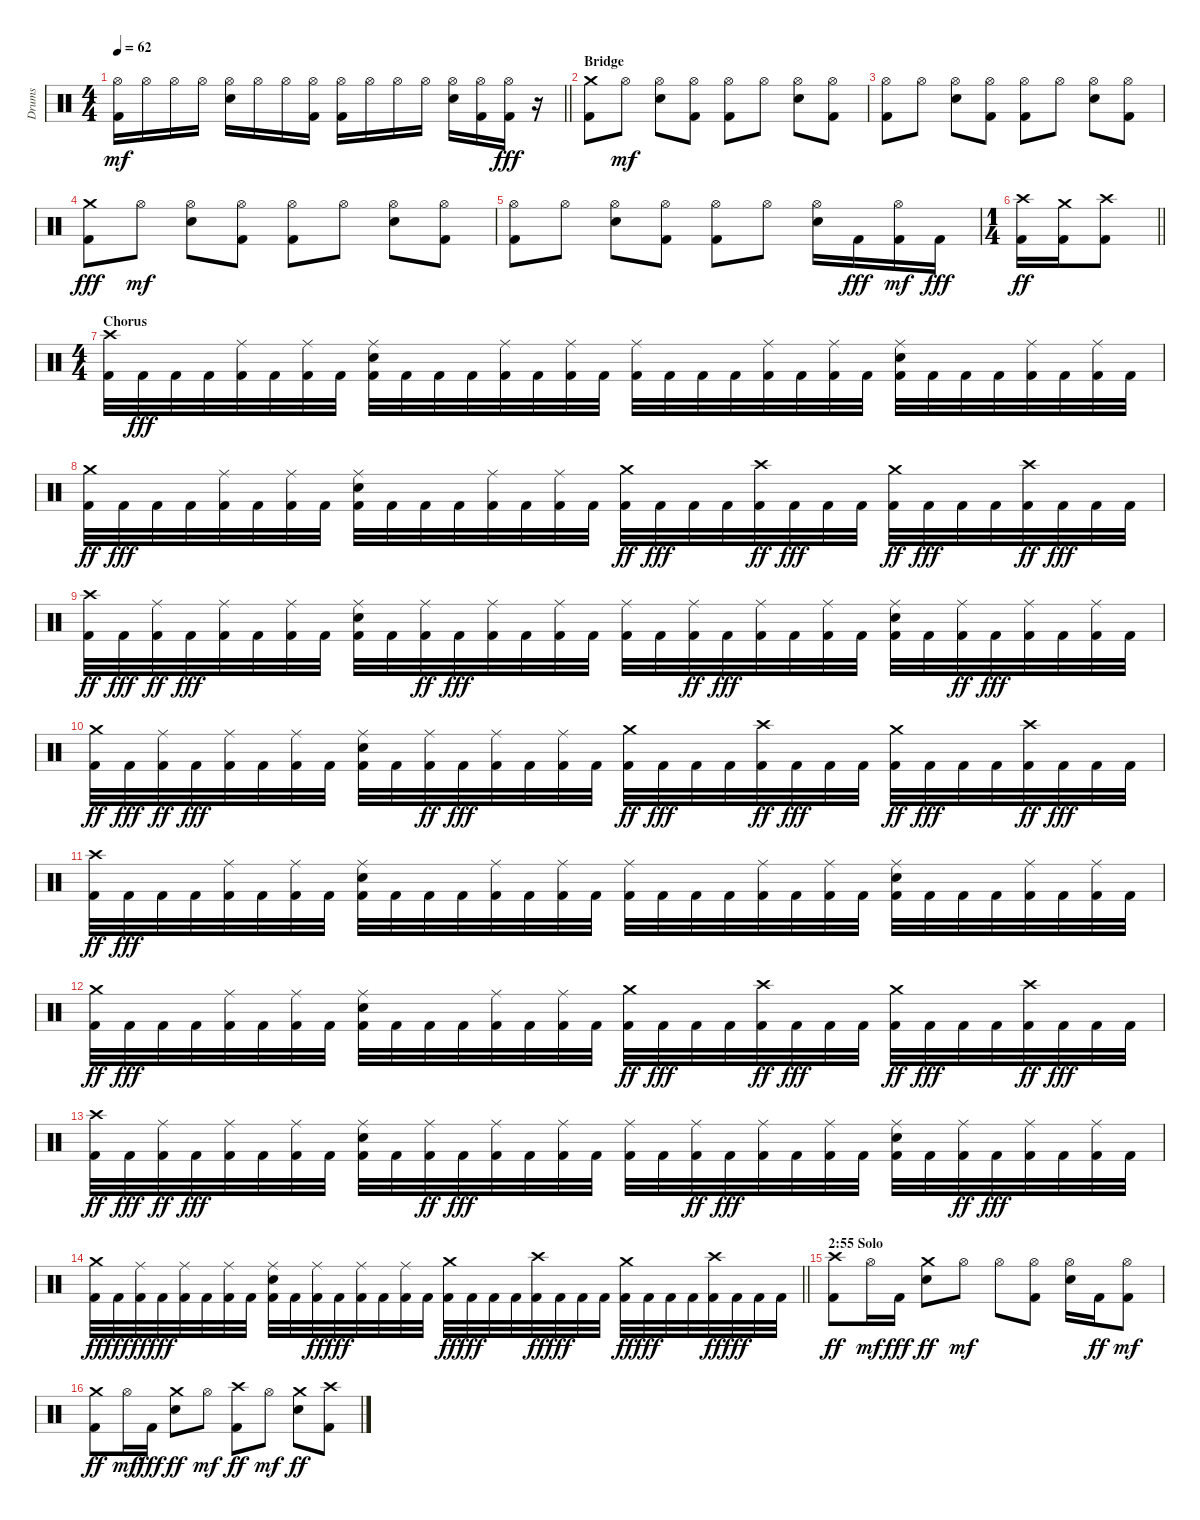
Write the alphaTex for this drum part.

\track ("Drums" "Drums") {instrument percussion}
\staff {score}
\articulation defaults
\ts (4 4)
\tempo 62
\clef neutral
\barLineRight lightlight
\ks c
("Kick (hit) 2" "Hi-Hat (open)").16{dy mf} "Hi-Hat (open)".16 "Hi-Hat (open)".16 "Hi-Hat (open)".16 ("Electric Snare (hit)" "Hi-Hat (open)").16 "Hi-Hat (open)".16 "Hi-Hat (open)".16 ("Kick (hit) 2" "Hi-Hat (open)").16 ("Kick (hit) 2" "Hi-Hat (open)").16 "Hi-Hat (open)".16 "Hi-Hat (open)".16 "Hi-Hat (open)".16 ("Electric Snare (hit)" "Hi-Hat (open)").16 ("Kick (hit) 2" "Hi-Hat (open)").16 ("Kick (hit) 2" "Hi-Hat (open)").16{dy fff} r.16 |
\section ("" "Bridge")
("Kick (hit) 2" "Crash medium (hit)").8 "Hi-Hat (open)".8{dy mf} ("Electric Snare (hit)" "Hi-Hat (open)").8 ("Kick (hit) 2" "Hi-Hat (open)").8 ("Kick (hit) 2" "Hi-Hat (open)").8 "Hi-Hat (open)".8 ("Electric Snare (hit)" "Hi-Hat (open)").8 ("Kick (hit) 2" "Hi-Hat (open)").8 |
("Kick (hit) 2" "Hi-Hat (open)").8 "Hi-Hat (open)".8 ("Electric Snare (hit)" "Hi-Hat (open)").8 ("Kick (hit) 2" "Hi-Hat (open)").8 ("Kick (hit) 2" "Hi-Hat (open)").8 "Hi-Hat (open)".8 ("Electric Snare (hit)" "Hi-Hat (open)").8 ("Kick (hit) 2" "Hi-Hat (open)").8 |
("Kick (hit) 2" "Crash medium (hit)").8{dy fff} "Hi-Hat (open)".8{dy mf} ("Electric Snare (hit)" "Hi-Hat (open)").8 ("Kick (hit) 2" "Hi-Hat (open)").8 ("Kick (hit) 2" "Hi-Hat (open)").8 "Hi-Hat (open)".8 ("Electric Snare (hit)" "Hi-Hat (open)").8 ("Kick (hit) 2" "Hi-Hat (open)").8 |
("Kick (hit) 2" "Hi-Hat (open)").8 "Hi-Hat (open)".8 ("Electric Snare (hit)" "Hi-Hat (open)").8 ("Kick (hit) 2" "Hi-Hat (open)").8 ("Kick (hit) 2" "Hi-Hat (open)").8 "Hi-Hat (open)".8 ("Electric Snare (hit)" "Hi-Hat (open)").16 "Kick (hit) 2".16{dy fff} ("Kick (hit) 2" "Hi-Hat (open)").16{dy mf} "Kick (hit) 2".16{dy fff} |
\ts (1 4)
\barLineRight lightlight
("Kick (hit) 2" "Crash high (hit)").16{dy ff} ("Kick (hit) 2" "Crash medium (hit)").16 ("Kick (hit) 2" "Crash high (hit)").8 |
\ts (4 4)
\section ("" "Chorus")
("Kick (hit) 2" "Crash high (hit)").32 "Kick (hit) 2".32{dy fff} "Kick (hit) 2".32 "Kick (hit) 2".32 ("Kick (hit) 2" "Ride (middle)").32 "Kick (hit) 2".32 ("Kick (hit) 2" "Ride (middle)").32 "Kick (hit) 2".32 ("Kick (hit) 2" "Electric Snare (hit)" "Ride (middle)").32 "Kick (hit) 2".32 "Kick (hit) 2".32 "Kick (hit) 2".32 ("Kick (hit) 2" "Ride (middle)").32 "Kick (hit) 2".32 ("Kick (hit) 2" "Ride (middle)").32 "Kick (hit) 2".32 ("Kick (hit) 2" "Ride (middle)").32 "Kick (hit) 2".32 "Kick (hit) 2".32 "Kick (hit) 2".32 ("Kick (hit) 2" "Ride (middle)").32 "Kick (hit) 2".32 ("Kick (hit) 2" "Ride (middle)").32 "Kick (hit) 2".32 ("Kick (hit) 2" "Electric Snare (hit)" "Ride (middle)").32 "Kick (hit) 2".32 "Kick (hit) 2".32 "Kick (hit) 2".32 ("Kick (hit) 2" "Ride (middle)").32 "Kick (hit) 2".32 ("Kick (hit) 2" "Ride (middle)").32 "Kick (hit) 2".32 |
("Kick (hit) 2" "Crash medium (hit)").32{dy ff} "Kick (hit) 2".32{dy fff} "Kick (hit) 2".32 "Kick (hit) 2".32 ("Kick (hit) 2" "Ride (middle)").32 "Kick (hit) 2".32 ("Kick (hit) 2" "Ride (middle)").32 "Kick (hit) 2".32 ("Kick (hit) 2" "Electric Snare (hit)" "Ride (middle)").32 "Kick (hit) 2".32 "Kick (hit) 2".32 "Kick (hit) 2".32 ("Kick (hit) 2" "Ride (middle)").32 "Kick (hit) 2".32 ("Kick (hit) 2" "Ride (middle)").32 "Kick (hit) 2".32 ("Kick (hit) 2" "Crash medium (hit)").32{dy ff} "Kick (hit) 2".32{dy fff} "Kick (hit) 2".32 "Kick (hit) 2".32 ("Kick (hit) 2" "Crash high (hit)").32{dy ff} "Kick (hit) 2".32{dy fff} "Kick (hit) 2".32 "Kick (hit) 2".32 ("Kick (hit) 2" "Crash medium (hit)").32{dy ff} "Kick (hit) 2".32{dy fff} "Kick (hit) 2".32 "Kick (hit) 2".32 ("Kick (hit) 2" "Crash high (hit)").32{dy ff} "Kick (hit) 2".32{dy fff} "Kick (hit) 2".32 "Kick (hit) 2".32 |
("Kick (hit) 2" "Crash high (hit)").32{dy ff} "Kick (hit) 2".32{dy fff} ("Kick (hit) 2" "Ride (middle)").32{dy ff} "Kick (hit) 2".32{dy fff} ("Kick (hit) 2" "Ride (middle)").32 "Kick (hit) 2".32 ("Kick (hit) 2" "Ride (middle)").32 "Kick (hit) 2".32 ("Kick (hit) 2" "Electric Snare (hit)" "Ride (middle)").32 "Kick (hit) 2".32 ("Kick (hit) 2" "Ride (middle)").32{dy ff} "Kick (hit) 2".32{dy fff} ("Kick (hit) 2" "Ride (middle)").32 "Kick (hit) 2".32 ("Kick (hit) 2" "Ride (middle)").32 "Kick (hit) 2".32 ("Kick (hit) 2" "Ride (middle)").32 "Kick (hit) 2".32 ("Kick (hit) 2" "Ride (middle)").32{dy ff} "Kick (hit) 2".32{dy fff} ("Kick (hit) 2" "Ride (middle)").32 "Kick (hit) 2".32 ("Kick (hit) 2" "Ride (middle)").32 "Kick (hit) 2".32 ("Kick (hit) 2" "Electric Snare (hit)" "Ride (middle)").32 "Kick (hit) 2".32 ("Kick (hit) 2" "Ride (middle)").32{dy ff} "Kick (hit) 2".32{dy fff} ("Kick (hit) 2" "Ride (middle)").32 "Kick (hit) 2".32 ("Kick (hit) 2" "Ride (middle)").32 "Kick (hit) 2".32 |
("Kick (hit) 2" "Crash medium (hit)").32{dy ff} "Kick (hit) 2".32{dy fff} ("Kick (hit) 2" "Ride (middle)").32{dy ff} "Kick (hit) 2".32{dy fff} ("Kick (hit) 2" "Ride (middle)").32 "Kick (hit) 2".32 ("Kick (hit) 2" "Ride (middle)").32 "Kick (hit) 2".32 ("Kick (hit) 2" "Electric Snare (hit)" "Ride (middle)").32 "Kick (hit) 2".32 ("Kick (hit) 2" "Ride (middle)").32{dy ff} "Kick (hit) 2".32{dy fff} ("Kick (hit) 2" "Ride (middle)").32 "Kick (hit) 2".32 ("Kick (hit) 2" "Ride (middle)").32 "Kick (hit) 2".32 ("Kick (hit) 2" "Crash medium (hit)").32{dy ff} "Kick (hit) 2".32{dy fff} "Kick (hit) 2".32 "Kick (hit) 2".32 ("Kick (hit) 2" "Crash high (hit)").32{dy ff} "Kick (hit) 2".32{dy fff} "Kick (hit) 2".32 "Kick (hit) 2".32 ("Kick (hit) 2" "Crash medium (hit)").32{dy ff} "Kick (hit) 2".32{dy fff} "Kick (hit) 2".32 "Kick (hit) 2".32 ("Kick (hit) 2" "Crash high (hit)").32{dy ff} "Kick (hit) 2".32{dy fff} "Kick (hit) 2".32 "Kick (hit) 2".32 |
("Kick (hit) 2" "Crash high (hit)").32{dy ff} "Kick (hit) 2".32{dy fff} "Kick (hit) 2".32 "Kick (hit) 2".32 ("Kick (hit) 2" "Ride (middle)").32 "Kick (hit) 2".32 ("Kick (hit) 2" "Ride (middle)").32 "Kick (hit) 2".32 ("Kick (hit) 2" "Electric Snare (hit)" "Ride (middle)").32 "Kick (hit) 2".32 "Kick (hit) 2".32 "Kick (hit) 2".32 ("Kick (hit) 2" "Ride (middle)").32 "Kick (hit) 2".32 ("Kick (hit) 2" "Ride (middle)").32 "Kick (hit) 2".32 ("Kick (hit) 2" "Ride (middle)").32 "Kick (hit) 2".32 "Kick (hit) 2".32 "Kick (hit) 2".32 ("Kick (hit) 2" "Ride (middle)").32 "Kick (hit) 2".32 ("Kick (hit) 2" "Ride (middle)").32 "Kick (hit) 2".32 ("Kick (hit) 2" "Electric Snare (hit)" "Ride (middle)").32 "Kick (hit) 2".32 "Kick (hit) 2".32 "Kick (hit) 2".32 ("Kick (hit) 2" "Ride (middle)").32 "Kick (hit) 2".32 ("Kick (hit) 2" "Ride (middle)").32 "Kick (hit) 2".32 |
("Kick (hit) 2" "Crash medium (hit)").32{dy ff} "Kick (hit) 2".32{dy fff} "Kick (hit) 2".32 "Kick (hit) 2".32 ("Kick (hit) 2" "Ride (middle)").32 "Kick (hit) 2".32 ("Kick (hit) 2" "Ride (middle)").32 "Kick (hit) 2".32 ("Kick (hit) 2" "Electric Snare (hit)" "Ride (middle)").32 "Kick (hit) 2".32 "Kick (hit) 2".32 "Kick (hit) 2".32 ("Kick (hit) 2" "Ride (middle)").32 "Kick (hit) 2".32 ("Kick (hit) 2" "Ride (middle)").32 "Kick (hit) 2".32 ("Kick (hit) 2" "Crash medium (hit)").32{dy ff} "Kick (hit) 2".32{dy fff} "Kick (hit) 2".32 "Kick (hit) 2".32 ("Kick (hit) 2" "Crash high (hit)").32{dy ff} "Kick (hit) 2".32{dy fff} "Kick (hit) 2".32 "Kick (hit) 2".32 ("Kick (hit) 2" "Crash medium (hit)").32{dy ff} "Kick (hit) 2".32{dy fff} "Kick (hit) 2".32 "Kick (hit) 2".32 ("Kick (hit) 2" "Crash high (hit)").32{dy ff} "Kick (hit) 2".32{dy fff} "Kick (hit) 2".32 "Kick (hit) 2".32 |
("Kick (hit) 2" "Crash high (hit)").32{dy ff} "Kick (hit) 2".32{dy fff} ("Kick (hit) 2" "Ride (middle)").32{dy ff} "Kick (hit) 2".32{dy fff} ("Kick (hit) 2" "Ride (middle)").32 "Kick (hit) 2".32 ("Kick (hit) 2" "Ride (middle)").32 "Kick (hit) 2".32 ("Kick (hit) 2" "Electric Snare (hit)" "Ride (middle)").32 "Kick (hit) 2".32 ("Kick (hit) 2" "Ride (middle)").32{dy ff} "Kick (hit) 2".32{dy fff} ("Kick (hit) 2" "Ride (middle)").32 "Kick (hit) 2".32 ("Kick (hit) 2" "Ride (middle)").32 "Kick (hit) 2".32 ("Kick (hit) 2" "Ride (middle)").32 "Kick (hit) 2".32 ("Kick (hit) 2" "Ride (middle)").32{dy ff} "Kick (hit) 2".32{dy fff} ("Kick (hit) 2" "Ride (middle)").32 "Kick (hit) 2".32 ("Kick (hit) 2" "Ride (middle)").32 "Kick (hit) 2".32 ("Kick (hit) 2" "Electric Snare (hit)" "Ride (middle)").32 "Kick (hit) 2".32 ("Kick (hit) 2" "Ride (middle)").32{dy ff} "Kick (hit) 2".32{dy fff} ("Kick (hit) 2" "Ride (middle)").32 "Kick (hit) 2".32 ("Kick (hit) 2" "Ride (middle)").32 "Kick (hit) 2".32 |
\barLineRight lightlight
("Kick (hit) 2" "Crash medium (hit)").32{dy ff} "Kick (hit) 2".32{dy fff} ("Kick (hit) 2" "Ride (middle)").32{dy ff} "Kick (hit) 2".32{dy fff} ("Kick (hit) 2" "Ride (middle)").32 "Kick (hit) 2".32 ("Kick (hit) 2" "Ride (middle)").32 "Kick (hit) 2".32 ("Kick (hit) 2" "Electric Snare (hit)" "Ride (middle)").32 "Kick (hit) 2".32 ("Kick (hit) 2" "Ride (middle)").32{dy ff} "Kick (hit) 2".32{dy fff} ("Kick (hit) 2" "Ride (middle)").32 "Kick (hit) 2".32 ("Kick (hit) 2" "Ride (middle)").32 "Kick (hit) 2".32 ("Kick (hit) 2" "Crash medium (hit)").32{dy ff} "Kick (hit) 2".32{dy fff} "Kick (hit) 2".32 "Kick (hit) 2".32 ("Kick (hit) 2" "Crash high (hit)").32{dy ff} "Kick (hit) 2".32{dy fff} "Kick (hit) 2".32 "Kick (hit) 2".32 ("Kick (hit) 2" "Crash medium (hit)").32{dy ff} "Kick (hit) 2".32{dy fff} "Kick (hit) 2".32 "Kick (hit) 2".32 ("Kick (hit) 2" "Crash high (hit)").32{dy ff} "Kick (hit) 2".32{dy fff} "Kick (hit) 2".32 "Kick (hit) 2".32 |
\section ("" "2:55 Solo")
("Kick (hit) 2" "Crash high (hit)").8{dy ff} "Hi-Hat (open)".16{dy mf} "Kick (hit) 2".16{dy fff} ("Electric Snare (hit)" "Crash medium (hit)").8{dy ff} "Hi-Hat (open)".8{dy mf} "Hi-Hat (open)".8 ("Kick (hit) 2" "Hi-Hat (open)").8 ("Electric Snare (hit)" "Hi-Hat (open)").16 "Kick (hit) 2".16{dy ff} ("Kick (hit) 2" "Hi-Hat (open)").8{dy mf} |
("Kick (hit) 2" "Crash medium (hit)").8{dy ff} "Hi-Hat (open)".16{dy mf} "Kick (hit) 2".16{dy fff} ("Electric Snare (hit)" "Crash medium (hit)").8{dy ff} "Hi-Hat (open)".8{dy mf} ("Kick (hit) 2" "Crash high (hit)").8{dy ff} "Hi-Hat (open)".8{dy mf} ("Electric Snare (hit)" "Crash medium (hit)").8{dy ff} ("Kick (hit) 2" "Crash high (hit)").8
